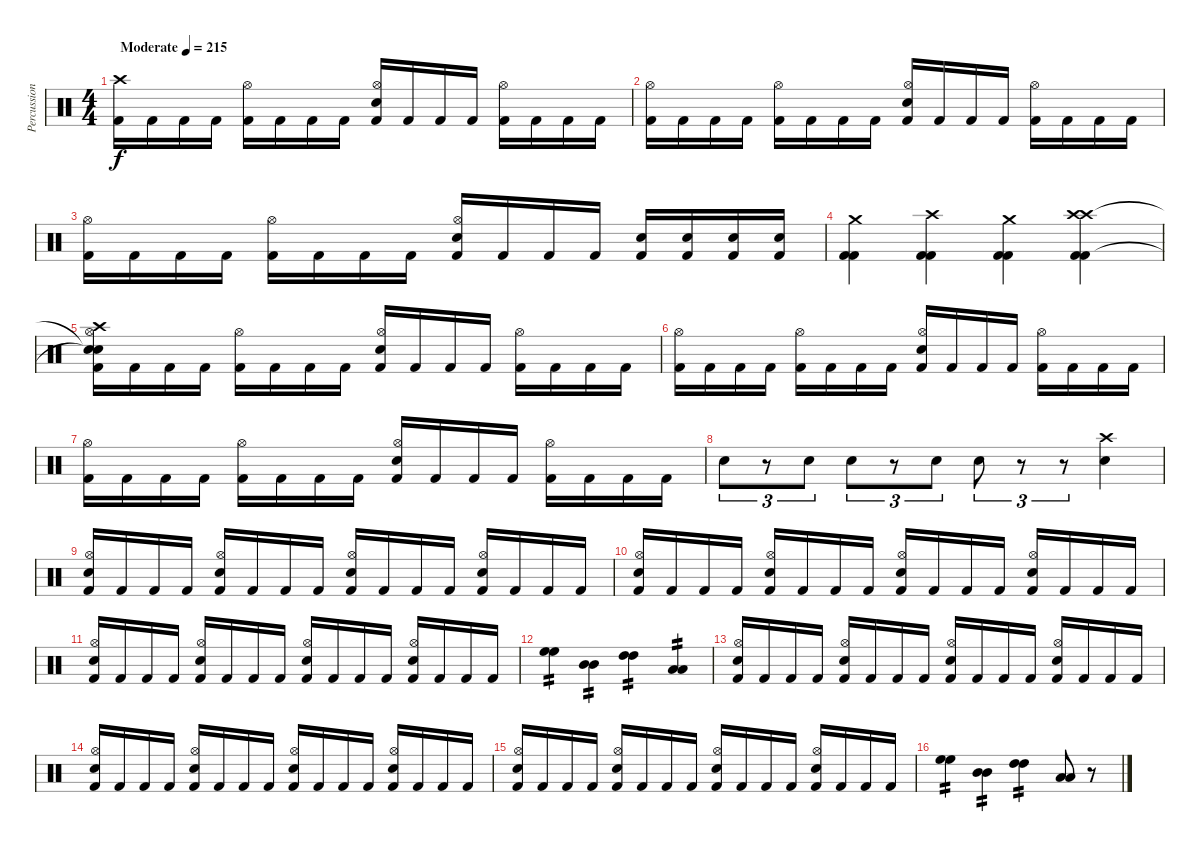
\track ("Percussion" "Percussion") {instrument percussion}
\staff {score}
\articulation defaults
\ts (4 4)
\tempo (215 "Moderate")
\clef neutral
\ks c
("Crash high (hit)" "Kick (hit) 2").16{dy f} "Kick (hit) 2".16 "Kick (hit) 2".16 "Kick (hit) 2".16 ("Hi-Hat (open)" "Kick (hit) 2").16 "Kick (hit) 2".16 "Kick (hit) 2".16 "Kick (hit) 2".16 ("Hi-Hat (open)" "Electric Snare (hit)" "Kick (hit) 2").16 "Kick (hit) 2".16 "Kick (hit) 2".16 "Kick (hit) 2".16 ("Hi-Hat (open)" "Kick (hit) 2").16 "Kick (hit) 2".16 "Kick (hit) 2".16 "Kick (hit) 2".16 |
("Hi-Hat (open)" "Kick (hit) 2").16 "Kick (hit) 2".16 "Kick (hit) 2".16 "Kick (hit) 2".16 ("Hi-Hat (open)" "Kick (hit) 2").16 "Kick (hit) 2".16 "Kick (hit) 2".16 "Kick (hit) 2".16 ("Hi-Hat (open)" "Electric Snare (hit)" "Kick (hit) 2").16 "Kick (hit) 2".16 "Kick (hit) 2".16 "Kick (hit) 2".16 ("Hi-Hat (open)" "Kick (hit) 2").16 "Kick (hit) 2".16 "Kick (hit) 2".16 "Kick (hit) 2".16 |
("Hi-Hat (open)" "Kick (hit) 2").16 "Kick (hit) 2".16 "Kick (hit) 2".16 "Kick (hit) 2".16 ("Hi-Hat (open)" "Kick (hit) 2").16 "Kick (hit) 2".16 "Kick (hit) 2".16 "Kick (hit) 2".16 ("Hi-Hat (open)" "Electric Snare (hit)" "Kick (hit) 2").16 "Kick (hit) 2".16 "Kick (hit) 2".16 "Kick (hit) 2".16 ("Electric Snare (hit)" "Kick (hit) 2").16 ("Electric Snare (hit)" "Kick (hit) 2").16 ("Electric Snare (hit)" "Kick (hit) 2").16 ("Electric Snare (hit)" "Kick (hit) 2").16 |
("Crash medium (hit)" "Kick (hit) 2" "Kick (hit) 2").4 ("Crash high (hit)" "Kick (hit) 2" "Kick (hit) 2").4 ("Crash medium (hit)" "Kick (hit) 2" "Kick (hit) 2").4 ("Crash high (hit)" "Crash high (hit)" "Kick (hit) 2" "Kick (hit) 2").4 |
("Crash high (hit)" "Snare (hit)"{t} "Hi-Hat (open)" "Snare (hit)"{t} "Kick (hit) 2").16 "Kick (hit) 2".16 "Kick (hit) 2".16 "Kick (hit) 2".16 ("Hi-Hat (open)" "Kick (hit) 2").16 "Kick (hit) 2".16 "Kick (hit) 2".16 "Kick (hit) 2".16 ("Hi-Hat (open)" "Electric Snare (hit)" "Kick (hit) 2").16 "Kick (hit) 2".16 "Kick (hit) 2".16 "Kick (hit) 2".16 ("Hi-Hat (open)" "Kick (hit) 2").16 "Kick (hit) 2".16 "Kick (hit) 2".16 "Kick (hit) 2".16 |
("Hi-Hat (open)" "Kick (hit) 2").16 "Kick (hit) 2".16 "Kick (hit) 2".16 "Kick (hit) 2".16 ("Hi-Hat (open)" "Kick (hit) 2").16 "Kick (hit) 2".16 "Kick (hit) 2".16 "Kick (hit) 2".16 ("Hi-Hat (open)" "Electric Snare (hit)" "Kick (hit) 2").16 "Kick (hit) 2".16 "Kick (hit) 2".16 "Kick (hit) 2".16 ("Hi-Hat (open)" "Kick (hit) 2").16 "Kick (hit) 2".16 "Kick (hit) 2".16 "Kick (hit) 2".16 |
("Hi-Hat (open)" "Kick (hit) 2").16 "Kick (hit) 2".16 "Kick (hit) 2".16 "Kick (hit) 2".16 ("Hi-Hat (open)" "Kick (hit) 2").16 "Kick (hit) 2".16 "Kick (hit) 2".16 "Kick (hit) 2".16 ("Hi-Hat (open)" "Electric Snare (hit)" "Kick (hit) 2").16 "Kick (hit) 2".16 "Kick (hit) 2".16 "Kick (hit) 2".16 ("Hi-Hat (open)" "Kick (hit) 2").16 "Kick (hit) 2".16 "Kick (hit) 2".16 "Kick (hit) 2".16 |
"Electric Snare (hit)".8{tu (3 2)} r.8{tu (3 2)} "Electric Snare (hit)".8{tu (3 2)} "Electric Snare (hit)".8{tu (3 2)} r.8{tu (3 2)} "Electric Snare (hit)".8{tu (3 2)} "Electric Snare (hit)".8{tu (3 2)} r.8{tu (3 2)} r.8{tu (3 2)} ("Crash high (hit)" "Electric Snare (hit)").4 |
("Hi-Hat (open)" "Electric Snare (hit)" "Kick (hit) 2").16 "Kick (hit) 2".16 "Kick (hit) 2".16 "Kick (hit) 2".16 ("Hi-Hat (open)" "Electric Snare (hit)" "Kick (hit) 2").16 "Kick (hit) 2".16 "Kick (hit) 2".16 "Kick (hit) 2".16 ("Hi-Hat (open)" "Electric Snare (hit)" "Kick (hit) 2").16 "Kick (hit) 2".16 "Kick (hit) 2".16 "Kick (hit) 2".16 ("Hi-Hat (open)" "Electric Snare (hit)" "Kick (hit) 2").16 "Kick (hit) 2".16 "Kick (hit) 2".16 "Kick (hit) 2".16 |
("Hi-Hat (open)" "Electric Snare (hit)" "Kick (hit) 2").16 "Kick (hit) 2".16 "Kick (hit) 2".16 "Kick (hit) 2".16 ("Hi-Hat (open)" "Electric Snare (hit)" "Kick (hit) 2").16 "Kick (hit) 2".16 "Kick (hit) 2".16 "Kick (hit) 2".16 ("Hi-Hat (open)" "Electric Snare (hit)" "Kick (hit) 2").16 "Kick (hit) 2".16 "Kick (hit) 2".16 "Kick (hit) 2".16 ("Hi-Hat (open)" "Electric Snare (hit)" "Kick (hit) 2").16 "Kick (hit) 2".16 "Kick (hit) 2".16 "Kick (hit) 2".16 |
("Hi-Hat (open)" "Electric Snare (hit)" "Kick (hit) 2").16 "Kick (hit) 2".16 "Kick (hit) 2".16 "Kick (hit) 2".16 ("Hi-Hat (open)" "Electric Snare (hit)" "Kick (hit) 2").16 "Kick (hit) 2".16 "Kick (hit) 2".16 "Kick (hit) 2".16 ("Hi-Hat (open)" "Electric Snare (hit)" "Kick (hit) 2").16 "Kick (hit) 2".16 "Kick (hit) 2".16 "Kick (hit) 2".16 ("Hi-Hat (open)" "Electric Snare (hit)" "Kick (hit) 2").16 "Kick (hit) 2".16 "Kick (hit) 2".16 "Kick (hit) 2".16 |
("High Floor Tom (hit)" "High Floor Tom (hit)").4{tp 2} ("Mid Tom (hit)" "Mid Tom (hit)").4{tp 2} ("High Tom (hit)" "High Tom (hit)").4{tp 2} ("Low Tom (hit)" "Low Tom (hit)").4{tp 2} |
("Hi-Hat (open)" "Electric Snare (hit)" "Kick (hit) 2").16 "Kick (hit) 2".16 "Kick (hit) 2".16 "Kick (hit) 2".16 ("Hi-Hat (open)" "Electric Snare (hit)" "Kick (hit) 2").16 "Kick (hit) 2".16 "Kick (hit) 2".16 "Kick (hit) 2".16 ("Hi-Hat (open)" "Electric Snare (hit)" "Kick (hit) 2").16 "Kick (hit) 2".16 "Kick (hit) 2".16 "Kick (hit) 2".16 ("Hi-Hat (open)" "Electric Snare (hit)" "Kick (hit) 2").16 "Kick (hit) 2".16 "Kick (hit) 2".16 "Kick (hit) 2".16 |
("Hi-Hat (open)" "Electric Snare (hit)" "Kick (hit) 2").16 "Kick (hit) 2".16 "Kick (hit) 2".16 "Kick (hit) 2".16 ("Hi-Hat (open)" "Electric Snare (hit)" "Kick (hit) 2").16 "Kick (hit) 2".16 "Kick (hit) 2".16 "Kick (hit) 2".16 ("Hi-Hat (open)" "Electric Snare (hit)" "Kick (hit) 2").16 "Kick (hit) 2".16 "Kick (hit) 2".16 "Kick (hit) 2".16 ("Hi-Hat (open)" "Electric Snare (hit)" "Kick (hit) 2").16 "Kick (hit) 2".16 "Kick (hit) 2".16 "Kick (hit) 2".16 |
("Hi-Hat (open)" "Electric Snare (hit)" "Kick (hit) 2").16 "Kick (hit) 2".16 "Kick (hit) 2".16 "Kick (hit) 2".16 ("Hi-Hat (open)" "Electric Snare (hit)" "Kick (hit) 2").16 "Kick (hit) 2".16 "Kick (hit) 2".16 "Kick (hit) 2".16 ("Hi-Hat (open)" "Electric Snare (hit)" "Kick (hit) 2").16 "Kick (hit) 2".16 "Kick (hit) 2".16 "Kick (hit) 2".16 ("Hi-Hat (open)" "Electric Snare (hit)" "Kick (hit) 2").16 "Kick (hit) 2".16 "Kick (hit) 2".16 "Kick (hit) 2".16 |
("High Floor Tom (hit)" "High Floor Tom (hit)").4{tp 2} ("Mid Tom (hit)" "Mid Tom (hit)").4{tp 2} ("High Tom (hit)" "High Tom (hit)").4{tp 2} ("Low Tom (hit)" "Low Tom (hit)").8 r.8
